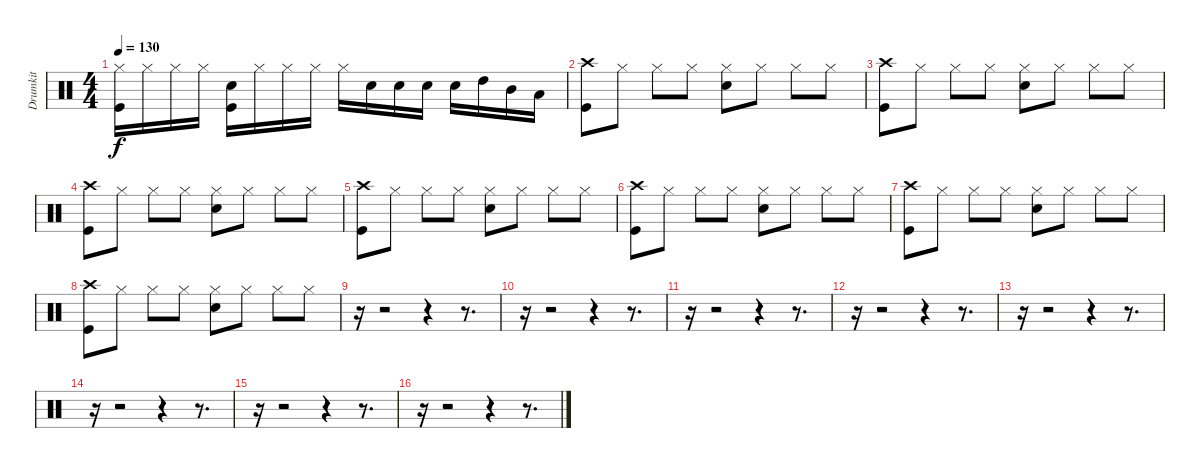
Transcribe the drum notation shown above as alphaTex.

\track ("Drumkit" "Drumkit") {instrument percussion}
\staff {score}
\articulation defaults
\ts (4 4)
\tempo 130
\clef neutral
\ks c
("Hi-Hat (closed)" "Kick (hit)").16{dy f} "Hi-Hat (closed)".16 "Hi-Hat (closed)".16 "Hi-Hat (closed)".16 ("Snare (hit) 2" "Kick (hit)").16 "Hi-Hat (closed)".16 "Hi-Hat (closed)".16 "Hi-Hat (closed)".16 "Hi-Hat (closed)".16 "Snare (hit) 2".16 "Snare (hit) 2".16 "Snare (hit) 2".16 "Snare (hit) 2".16 "High Tom (hit)".16 "Mid Tom (hit)".16 "Low Tom (hit)".16 |
("Crash high (hit)" "Kick (hit)").8 "Hi-Hat (closed)".8 "Hi-Hat (closed)".8 "Hi-Hat (closed)".8 ("Hi-Hat (closed)" "Snare (hit) 2").8 "Hi-Hat (closed)".8 "Hi-Hat (closed)".8 "Hi-Hat (closed)".8 |
("Crash high (hit)" "Kick (hit)").8 "Hi-Hat (closed)".8 "Hi-Hat (closed)".8 "Hi-Hat (closed)".8 ("Hi-Hat (closed)" "Snare (hit) 2").8 "Hi-Hat (closed)".8 "Hi-Hat (closed)".8 "Hi-Hat (closed)".8 |
("Crash high (hit)" "Kick (hit)").8 "Hi-Hat (closed)".8 "Hi-Hat (closed)".8 "Hi-Hat (closed)".8 ("Hi-Hat (closed)" "Snare (hit) 2").8 "Hi-Hat (closed)".8 "Hi-Hat (closed)".8 "Hi-Hat (closed)".8 |
("Crash high (hit)" "Kick (hit)").8 "Hi-Hat (closed)".8 "Hi-Hat (closed)".8 "Hi-Hat (closed)".8 ("Hi-Hat (closed)" "Snare (hit) 2").8 "Hi-Hat (closed)".8 "Hi-Hat (closed)".8 "Hi-Hat (closed)".8 |
("Crash high (hit)" "Kick (hit)").8 "Hi-Hat (closed)".8 "Hi-Hat (closed)".8 "Hi-Hat (closed)".8 ("Hi-Hat (closed)" "Snare (hit) 2").8 "Hi-Hat (closed)".8 "Hi-Hat (closed)".8 "Hi-Hat (closed)".8 |
("Crash high (hit)" "Kick (hit)").8 "Hi-Hat (closed)".8 "Hi-Hat (closed)".8 "Hi-Hat (closed)".8 ("Hi-Hat (closed)" "Snare (hit) 2").8 "Hi-Hat (closed)".8 "Hi-Hat (closed)".8 "Hi-Hat (closed)".8 |
("Crash high (hit)" "Kick (hit)").8 "Hi-Hat (closed)".8 "Hi-Hat (closed)".8 "Hi-Hat (closed)".8 ("Hi-Hat (closed)" "Snare (hit) 2").8 "Hi-Hat (closed)".8 "Hi-Hat (closed)".8 "Hi-Hat (closed)".8 |
r.16 r.2 r.4 r.8{d} |
r.16 r.2 r.4 r.8{d} |
r.16 r.2 r.4 r.8{d} |
r.16 r.2 r.4 r.8{d} |
r.16 r.2 r.4 r.8{d} |
r.16 r.2 r.4 r.8{d} |
r.16 r.2 r.4 r.8{d} |
r.16 r.2 r.4 r.8{d}
